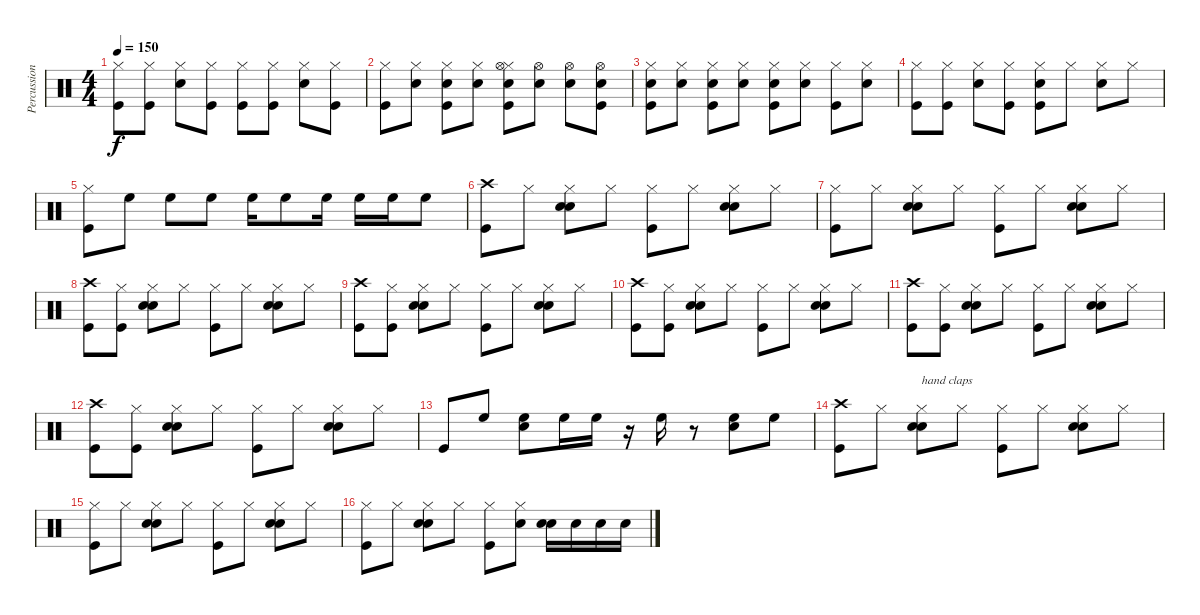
\track ("Percussion" "Percussion") {instrument percussion}
\staff {score}
\articulation defaults
\ts (4 4)
\tempo 150
\clef neutral
\ks c
("Hi-Hat (closed)" "Kick (hit)").8{dy f} ("Hi-Hat (closed)" "Kick (hit)").8 ("Hi-Hat (closed)" "Snare (hit) 2").8 ("Hi-Hat (closed)" "Kick (hit)").8 ("Hi-Hat (closed)" "Kick (hit)").8 ("Hi-Hat (closed)" "Kick (hit)").8 ("Hi-Hat (closed)" "Snare (hit) 2").8 ("Hi-Hat (closed)" "Kick (hit)").8 |
("Hi-Hat (closed)" "Kick (hit)").8 ("Hi-Hat (closed)" "Snare (hit) 2").8 ("Hi-Hat (closed)" "Snare (hit) 2" "Kick (hit)").8 ("Hi-Hat (closed)" "Snare (hit) 2").8 ("Hi-Hat (closed)" "Hi-Hat (open)" "Snare (hit) 2" "Kick (hit)").8 ("Hi-Hat (open)" "Snare (hit) 2").8 ("Hi-Hat (open)" "Snare (hit) 2").8 ("Hi-Hat (open)" "Snare (hit) 2" "Kick (hit)").8 |
("Hi-Hat (closed)" "Snare (hit) 2" "Kick (hit)").8 ("Hi-Hat (closed)" "Snare (hit) 2").8 ("Hi-Hat (closed)" "Snare (hit) 2" "Kick (hit)").8 ("Hi-Hat (closed)" "Snare (hit) 2").8 ("Hi-Hat (closed)" "Snare (hit) 2" "Kick (hit)").8 ("Hi-Hat (closed)" "Snare (hit) 2").8 ("Hi-Hat (closed)" "Kick (hit)").8 ("Hi-Hat (closed)" "Snare (hit) 2").8 |
("Hi-Hat (closed)" "Kick (hit)").8 ("Hi-Hat (closed)" "Kick (hit)").8 ("Hi-Hat (closed)" "Snare (hit) 2").8 ("Hi-Hat (closed)" "Kick (hit)").8 ("Hi-Hat (closed)" "Snare (hit) 2" "Kick (hit)").8 "Hi-Hat (closed)".8 ("Hi-Hat (closed)" "Snare (hit) 2").8 "Hi-Hat (closed)".8 |
("Hi-Hat (closed)" "Kick (hit)").8 "High Floor Tom (hit)".8 "High Floor Tom (hit)".8 "High Floor Tom (hit)".8 "High Floor Tom (hit)".16 "High Floor Tom (hit)".8 "High Floor Tom (hit)".16 "High Floor Tom (hit)".16 "High Floor Tom (hit)".16 "High Floor Tom (hit)".8 |
("Crash high (hit)" "Kick (hit)").8 "Hi-Hat (closed)".8 ("Hi-Hat (closed)" "Hand Clap (hit)" "Snare (hit) 2").8 "Hi-Hat (closed)".8 ("Hi-Hat (closed)" "Kick (hit)").8 "Hi-Hat (closed)".8 ("Hi-Hat (closed)" "Hand Clap (hit)" "Snare (hit) 2").8 "Hi-Hat (closed)".8 |
("Hi-Hat (closed)" "Kick (hit)").8 "Hi-Hat (closed)".8 ("Hi-Hat (closed)" "Hand Clap (hit)" "Snare (hit) 2").8 "Hi-Hat (closed)".8 ("Hi-Hat (closed)" "Kick (hit)").8 "Hi-Hat (closed)".8 ("Hi-Hat (closed)" "Hand Clap (hit)" "Snare (hit) 2").8 "Hi-Hat (closed)".8 |
("Crash high (hit)" "Kick (hit)").8 ("Hi-Hat (closed)" "Kick (hit)").8 ("Hi-Hat (closed)" "Hand Clap (hit)" "Snare (hit) 2").8 "Hi-Hat (closed)".8 ("Hi-Hat (closed)" "Kick (hit)").8 "Hi-Hat (closed)".8 ("Hi-Hat (closed)" "Hand Clap (hit)" "Snare (hit) 2").8 "Hi-Hat (closed)".8 |
("Crash high (hit)" "Kick (hit)").8 ("Hi-Hat (closed)" "Kick (hit)").8 ("Hi-Hat (closed)" "Hand Clap (hit)" "Snare (hit) 2").8 "Hi-Hat (closed)".8 ("Hi-Hat (closed)" "Kick (hit)").8 "Hi-Hat (closed)".8 ("Hi-Hat (closed)" "Hand Clap (hit)" "Snare (hit) 2").8 "Hi-Hat (closed)".8 |
("Crash high (hit)" "Kick (hit)").8 ("Hi-Hat (closed)" "Kick (hit)").8 ("Hi-Hat (closed)" "Hand Clap (hit)" "Snare (hit) 2").8 "Hi-Hat (closed)".8 ("Hi-Hat (closed)" "Kick (hit)").8 "Hi-Hat (closed)".8 ("Hi-Hat (closed)" "Hand Clap (hit)" "Snare (hit) 2").8 "Hi-Hat (closed)".8 |
("Crash high (hit)" "Kick (hit)").8 ("Hi-Hat (closed)" "Kick (hit)").8 ("Hi-Hat (closed)" "Hand Clap (hit)" "Snare (hit) 2").8 "Hi-Hat (closed)".8 ("Hi-Hat (closed)" "Kick (hit)").8 "Hi-Hat (closed)".8 ("Hi-Hat (closed)" "Hand Clap (hit)" "Snare (hit) 2").8 "Hi-Hat (closed)".8 |
("Crash high (hit)" "Kick (hit)").8 ("Hi-Hat (closed)" "Kick (hit)").8 ("Hi-Hat (closed)" "Hand Clap (hit)" "Snare (hit) 2").8 "Hi-Hat (closed)".8 ("Hi-Hat (closed)" "Kick (hit)").8 "Hi-Hat (closed)".8 ("Hi-Hat (closed)" "Hand Clap (hit)" "Snare (hit) 2").8 "Hi-Hat (closed)".8 |
"Kick (hit)".8 "High Floor Tom (hit)".8 ("High Floor Tom (hit)" "Hand Clap (hit)").8 "High Floor Tom (hit)".16 "High Floor Tom (hit)".16 r.16 "High Floor Tom (hit)".16 r.8 ("High Floor Tom (hit)" "Hand Clap (hit)").8 "High Floor Tom (hit)".8 |
("Crash high (hit)" "Kick (hit)").8 "Hi-Hat (closed)".8 ("Hi-Hat (closed)" "Hand Clap (hit)" "Snare (hit) 2").8{txt "hand claps"} "Hi-Hat (closed)".8 ("Hi-Hat (closed)" "Kick (hit)").8 "Hi-Hat (closed)".8 ("Hi-Hat (closed)" "Hand Clap (hit)" "Snare (hit) 2").8 "Hi-Hat (closed)".8 |
("Hi-Hat (closed)" "Kick (hit)").8 "Hi-Hat (closed)".8 ("Hi-Hat (closed)" "Hand Clap (hit)" "Snare (hit) 2").8 "Hi-Hat (closed)".8 ("Hi-Hat (closed)" "Kick (hit)").8 "Hi-Hat (closed)".8 ("Hi-Hat (closed)" "Hand Clap (hit)" "Snare (hit) 2").8 "Hi-Hat (closed)".8 |
("Hi-Hat (closed)" "Kick (hit)").8 "Hi-Hat (closed)".8 ("Hi-Hat (closed)" "Hand Clap (hit)" "Snare (hit) 2").8 "Hi-Hat (closed)".8 ("Hi-Hat (closed)" "Kick (hit)").8 ("Hi-Hat (closed)" "Snare (hit) 2").8 ("Hand Clap (hit)" "Snare (hit) 2").16 "Snare (hit) 2".16 "Snare (hit) 2".16 "Snare (hit) 2".16
